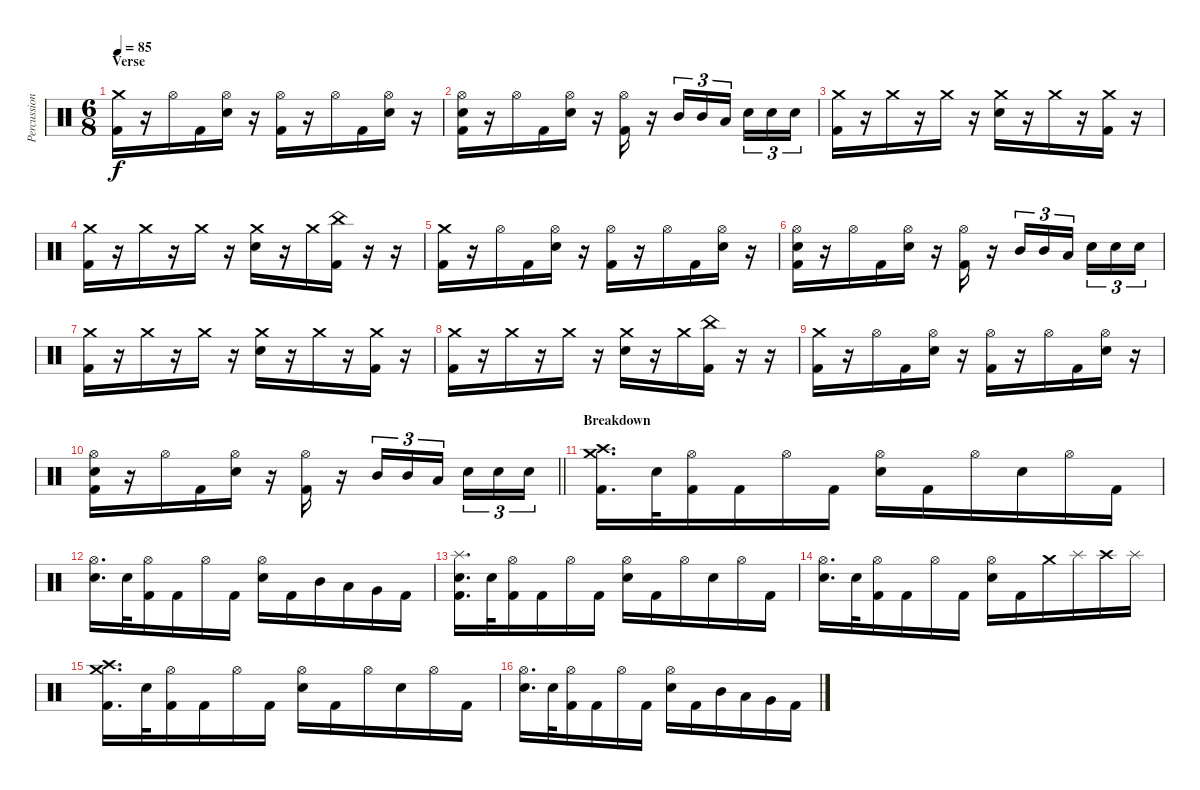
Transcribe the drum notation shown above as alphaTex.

\track ("Percussion" "Percussion") {instrument percussion}
\staff {score}
\articulation defaults
\ts (6 8)
\section ("" "Verse")
\tempo 85
\clef neutral
\ks c
("Crash medium (hit)" "Kick (hit) 2").16{dy f} r.16 "Hi-Hat (open)".16 "Kick (hit) 2".16 ("Hi-Hat (open)" "Electric Snare (hit)").16 r.16 ("Hi-Hat (open)" "Kick (hit) 2").16 r.16 "Hi-Hat (open)".16 "Kick (hit) 2".16 ("Hi-Hat (open)" "Electric Snare (hit)").16 r.16 |
("Hi-Hat (open)" "Electric Snare (hit)" "Kick (hit) 2").16 r.16 "Hi-Hat (open)".16 "Kick (hit) 2".16 ("Hi-Hat (open)" "Electric Snare (hit)").16 r.16 ("Hi-Hat (open)" "Kick (hit) 2").16 r.16 "Mid Tom (hit)".16{tu (3 2)} "Mid Tom (hit)".16{tu (3 2)} "Low Tom (hit)".16{tu (3 2) beam splitsecondary} "Electric Snare (hit)".16{tu (3 2)} "Electric Snare (hit)".16{tu (3 2)} "Electric Snare (hit)".16{tu (3 2)} |
("Crash medium (hit)" "Kick (hit) 2").16 r.16 "Crash medium (hit)".16 r.16 "Crash medium (hit)".16 r.16 ("Crash medium (hit)" "Electric Snare (hit)").16 r.16 "Crash medium (hit)".16 r.16 ("Crash medium (hit)" "Kick (hit) 2").16 r.16 |
("Crash medium (hit)" "Kick (hit) 2").16 r.16 "Crash medium (hit)".16 r.16 "Crash medium (hit)".16 r.16 ("Crash medium (hit)" "Electric Snare (hit)").16 r.16 "Crash medium (hit)".16 ("China (hit)" "Kick (hit) 2").16 r.16 r.16 |
("Crash medium (hit)" "Kick (hit) 2").16 r.16 "Hi-Hat (open)".16 "Kick (hit) 2".16 ("Hi-Hat (open)" "Electric Snare (hit)").16 r.16 ("Hi-Hat (open)" "Kick (hit) 2").16 r.16 "Hi-Hat (open)".16 "Kick (hit) 2".16 ("Hi-Hat (open)" "Electric Snare (hit)").16 r.16 |
("Hi-Hat (open)" "Electric Snare (hit)" "Kick (hit) 2").16 r.16 "Hi-Hat (open)".16 "Kick (hit) 2".16 ("Hi-Hat (open)" "Electric Snare (hit)").16 r.16 ("Hi-Hat (open)" "Kick (hit) 2").16 r.16 "Mid Tom (hit)".16{tu (3 2)} "Mid Tom (hit)".16{tu (3 2)} "Low Tom (hit)".16{tu (3 2) beam splitsecondary} "Electric Snare (hit)".16{tu (3 2)} "Electric Snare (hit)".16{tu (3 2)} "Electric Snare (hit)".16{tu (3 2)} |
("Crash medium (hit)" "Kick (hit) 2").16 r.16 "Crash medium (hit)".16 r.16 "Crash medium (hit)".16 r.16 ("Crash medium (hit)" "Electric Snare (hit)").16 r.16 "Crash medium (hit)".16 r.16 ("Crash medium (hit)" "Kick (hit) 2").16 r.16 |
("Crash medium (hit)" "Kick (hit) 2").16 r.16 "Crash medium (hit)".16 r.16 "Crash medium (hit)".16 r.16 ("Crash medium (hit)" "Electric Snare (hit)").16 r.16 "Crash medium (hit)".16 ("China (hit)" "Kick (hit) 2").16 r.16 r.16 |
("Crash medium (hit)" "Kick (hit) 2").16 r.16 "Hi-Hat (open)".16 "Kick (hit) 2".16 ("Hi-Hat (open)" "Electric Snare (hit)").16 r.16 ("Hi-Hat (open)" "Kick (hit) 2").16 r.16 "Hi-Hat (open)".16 "Kick (hit) 2".16 ("Hi-Hat (open)" "Electric Snare (hit)").16 r.16 |
\barLineRight lightlight
("Hi-Hat (open)" "Electric Snare (hit)" "Kick (hit) 2").16 r.16 "Hi-Hat (open)".16 "Kick (hit) 2".16 ("Hi-Hat (open)" "Electric Snare (hit)").16 r.16 ("Hi-Hat (open)" "Kick (hit) 2").16 r.16 "Mid Tom (hit)".16{tu (3 2)} "Mid Tom (hit)".16{tu (3 2)} "Low Tom (hit)".16{tu (3 2) beam splitsecondary} "Electric Snare (hit)".16{tu (3 2)} "Electric Snare (hit)".16{tu (3 2)} "Electric Snare (hit)".16{tu (3 2)} |
\section ("" "Breakdown")
("Crash medium (hit)" "Crash high (hit)" "Kick (hit) 2").16{d} "Electric Snare (hit)".32 ("Hi-Hat (open)" "Kick (hit) 2").16 "Kick (hit) 2".16 "Hi-Hat (open)".16 "Kick (hit) 2".16 ("Hi-Hat (open)" "Electric Snare (hit)").16 "Kick (hit) 2".16 "Hi-Hat (open)".16 "Electric Snare (hit)".16 "Hi-Hat (open)".16 "Kick (hit) 2".16 |
("Hi-Hat (open)" "Electric Snare (hit)").16{d} "Electric Snare (hit)".32 ("Hi-Hat (open)" "Kick (hit) 2").16 "Kick (hit) 2".16 "Hi-Hat (open)".16 "Kick (hit) 2".16 ("Hi-Hat (open)" "Electric Snare (hit)").16 "Kick (hit) 2".16 "Mid Tom (hit)".16 "Low Tom (hit)".16 "Very Low Tom (hit)".16 "Kick (hit) 2".16 |
("Splash (hit)" "Electric Snare (hit)" "Kick (hit) 2").16{d} "Electric Snare (hit)".32 ("Hi-Hat (open)" "Kick (hit) 2").16 "Kick (hit) 2".16 "Hi-Hat (open)".16 "Kick (hit) 2".16 ("Hi-Hat (open)" "Electric Snare (hit)").16 "Kick (hit) 2".16 "Hi-Hat (open)".16 "Electric Snare (hit)".16 "Hi-Hat (open)".16 "Kick (hit) 2".16 |
("Hi-Hat (open)" "Electric Snare (hit)").16{d} "Electric Snare (hit)".32 ("Hi-Hat (open)" "Kick (hit) 2").16 "Kick (hit) 2".16 "Hi-Hat (open)".16 "Kick (hit) 2".16 ("Hi-Hat (open)" "Electric Snare (hit)").16 "Kick (hit) 2".16 "Crash medium (hit)".16 "Splash (hit)".16 "Crash high (hit)".16 "Splash (hit)".16 |
("Crash medium (hit)" "Crash high (hit)" "Kick (hit) 2").16{d} "Electric Snare (hit)".32 ("Hi-Hat (open)" "Kick (hit) 2").16 "Kick (hit) 2".16 "Hi-Hat (open)".16 "Kick (hit) 2".16 ("Hi-Hat (open)" "Electric Snare (hit)").16 "Kick (hit) 2".16 "Hi-Hat (open)".16 "Electric Snare (hit)".16 "Hi-Hat (open)".16 "Kick (hit) 2".16 |
("Hi-Hat (open)" "Electric Snare (hit)").16{d} "Electric Snare (hit)".32 ("Hi-Hat (open)" "Kick (hit) 2").16 "Kick (hit) 2".16 "Hi-Hat (open)".16 "Kick (hit) 2".16 ("Hi-Hat (open)" "Electric Snare (hit)").16 "Kick (hit) 2".16 "Mid Tom (hit)".16 "Low Tom (hit)".16 "Very Low Tom (hit)".16 "Kick (hit) 2".16
